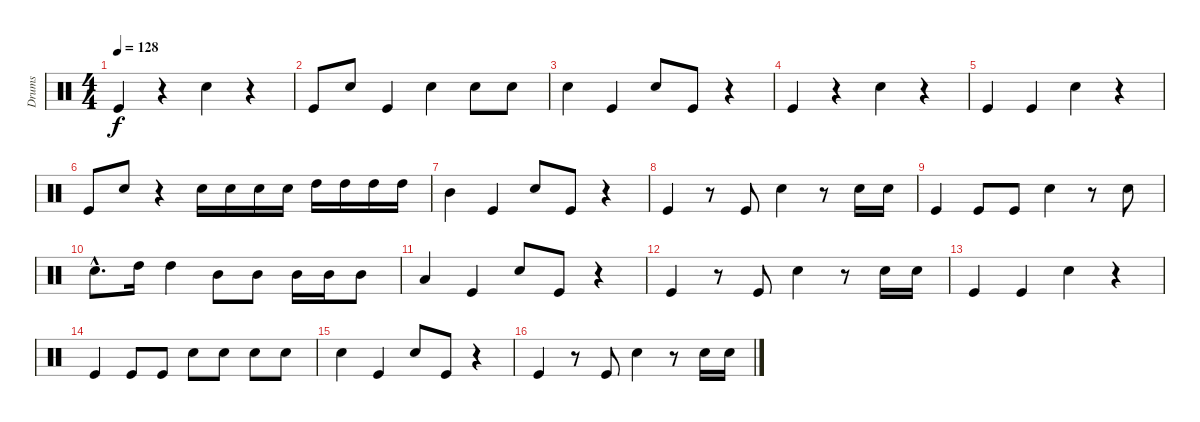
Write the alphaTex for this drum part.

\track ("Drums" "Drums") {instrument percussion}
\staff {score}
\articulation defaults
\ts (4 4)
\tempo 128
\clef neutral
\ks c "Kick (hit)".4{dy f}
r.4 "Snare (hit) 2".4 r.4 |
"Kick (hit)".8 "Snare (hit) 2".8 "Kick (hit)".4 "Snare (hit) 2".4 "Snare (hit) 2".8 "Snare (hit) 2".8 |
"Snare (hit) 2".4 "Kick (hit)".4 "Snare (hit) 2".8 "Kick (hit)".8 r.4 |
"Kick (hit)".4 r.4 "Snare (hit) 2".4 r.4 |
"Kick (hit)".4 "Kick (hit)".4 "Snare (hit) 2".4 r.4 |
"Kick (hit)".8 "Snare (hit) 2".8 r.4 "Snare (hit) 2".16 "Snare (hit) 2".16 "Snare (hit) 2".16 "Snare (hit) 2".16 "High Tom (hit)".16 "High Tom (hit)".16 "High Tom (hit)".16 "High Tom (hit)".16 |
"Mid Tom (hit)".4 "Kick (hit)".4 "Snare (hit) 2".8 "Kick (hit)".8 r.4 |
"Kick (hit)".4 r.8 "Kick (hit)".8 "Snare (hit) 2".4 r.8 "Snare (hit) 2".16 "Snare (hit) 2".16 |
"Kick (hit)".4 "Kick (hit)".8 "Kick (hit)".8 "Snare (hit) 2".4 r.8 "Snare (hit) 2".8 |
"Snare (hit) 2"{hac}.8{d} "High Tom (hit)".16 "High Tom (hit)".4 "Mid Tom (hit)".8 "Mid Tom (hit)".8 "Mid Tom (hit)".16 "Mid Tom (hit)".16 "Mid Tom (hit)".8 |
"Low Tom (hit)".4 "Kick (hit)".4 "Snare (hit) 2".8 "Kick (hit)".8 r.4 |
"Kick (hit)".4 r.8 "Kick (hit)".8 "Snare (hit) 2".4 r.8 "Snare (hit) 2".16 "Snare (hit) 2".16 |
"Kick (hit)".4 "Kick (hit)".4 "Snare (hit) 2".4 r.4 |
"Kick (hit)".4 "Kick (hit)".8 "Kick (hit)".8 "Snare (hit) 2".8 "Snare (hit) 2".8 "Snare (hit) 2".8 "Snare (hit) 2".8 |
"Snare (hit) 2".4 "Kick (hit)".4 "Snare (hit) 2".8 "Kick (hit)".8 r.4 |
"Kick (hit)".4 r.8 "Kick (hit)".8 "Snare (hit) 2".4 r.8 "Snare (hit) 2".16 "Snare (hit) 2".16
